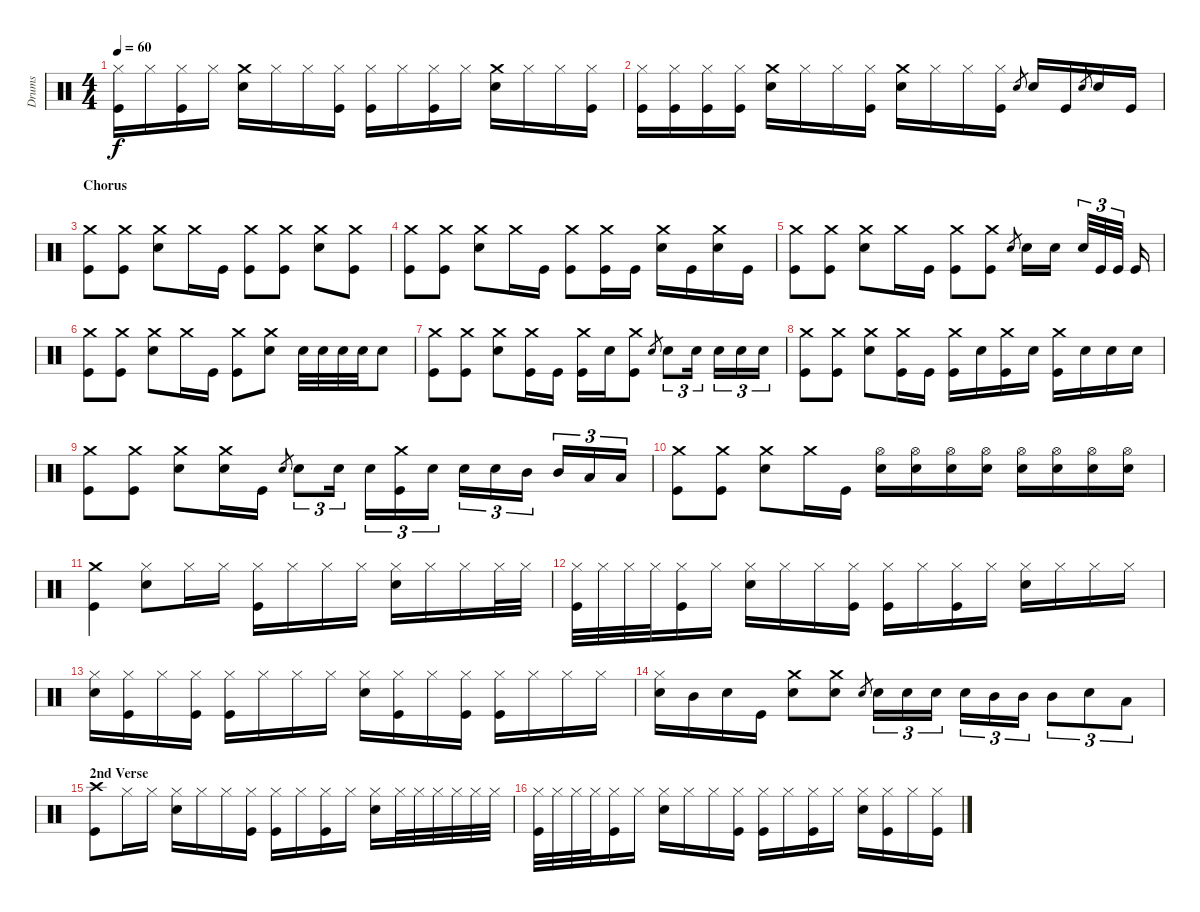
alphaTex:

\track ("Drums" "Drums") {instrument percussion}
\staff {score}
\articulation defaults
\ts (4 4)
\tempo 60
\clef neutral
\ks c
("Kick (hit)" "Hi-Hat (closed)").16{dy f} "Hi-Hat (closed)".16 ("Kick (hit)" "Hi-Hat (closed)").16 "Hi-Hat (closed)".16 ("Electric Snare (hit)" "Crash medium (hit)").16 "Hi-Hat (closed)".16 "Hi-Hat (closed)".16 ("Kick (hit)" "Hi-Hat (closed)").16 ("Kick (hit)" "Hi-Hat (closed)").16 "Hi-Hat (closed)".16 ("Kick (hit)" "Hi-Hat (closed)").16 "Hi-Hat (closed)".16 ("Electric Snare (hit)" "Crash medium (hit)").16 "Hi-Hat (closed)".16 "Hi-Hat (closed)".16 ("Kick (hit)" "Hi-Hat (closed)").16 |
("Kick (hit)" "Hi-Hat (closed)").16 ("Kick (hit)" "Hi-Hat (closed)").16 ("Kick (hit)" "Hi-Hat (closed)").16 ("Kick (hit)" "Hi-Hat (closed)").16 ("Electric Snare (hit)" "Crash medium (hit)").16 "Hi-Hat (closed)".16 "Hi-Hat (closed)".16 ("Kick (hit)" "Hi-Hat (closed)").16 ("Electric Snare (hit)" "Crash medium (hit)").16 "Hi-Hat (closed)".16 "Hi-Hat (closed)".16 ("Kick (hit)" "Hi-Hat (closed)").16 "Electric Snare (hit)".8{gr} "Electric Snare (hit)".16 "Kick (hit)".16 "Electric Snare (hit)".8{gr} "Electric Snare (hit)".16 "Kick (hit)".16 |
\section ("" "Chorus")
("Kick (hit)" "Crash medium (hit)").8 ("Kick (hit)" "Crash medium (hit)").8 ("Electric Snare (hit)" "Crash medium (hit)").8 "Crash medium (hit)".16 "Kick (hit)".16 ("Kick (hit)" "Crash medium (hit)").8 ("Kick (hit)" "Crash medium (hit)").8 ("Electric Snare (hit)" "Crash medium (hit)").8 ("Kick (hit)" "Crash medium (hit)").8 |
("Kick (hit)" "Crash medium (hit)").8 ("Kick (hit)" "Crash medium (hit)").8 ("Electric Snare (hit)" "Crash medium (hit)").8 "Crash medium (hit)".16 "Kick (hit)".16 ("Kick (hit)" "Crash medium (hit)").8 ("Kick (hit)" "Crash medium (hit)").16 "Kick (hit)".16 ("Electric Snare (hit)" "Crash medium (hit)").16 "Kick (hit)".16 ("Electric Snare (hit)" "Crash medium (hit)").16 "Kick (hit)".16 |
("Kick (hit)" "Crash medium (hit)").8 ("Kick (hit)" "Crash medium (hit)").8 ("Electric Snare (hit)" "Crash medium (hit)").8 "Crash medium (hit)".16 "Kick (hit)".16 ("Kick (hit)" "Crash medium (hit)").8 ("Kick (hit)" "Crash medium (hit)").8 "Electric Snare (hit)".8{gr} "Electric Snare (hit)".16 "Electric Snare (hit)".16 "Electric Snare (hit)".32{tu (3 2)} "Kick (hit)".32{tu (3 2)} "Kick (hit)".32{tu (3 2)} "Kick (hit)".16 |
("Kick (hit)" "Crash medium (hit)").8 ("Kick (hit)" "Crash medium (hit)").8 ("Electric Snare (hit)" "Crash medium (hit)").8 "Crash medium (hit)".16 "Kick (hit)".16 ("Kick (hit)" "Crash medium (hit)").8 ("Electric Snare (hit)" "Crash medium (hit)").8 "Electric Snare (hit)".32 "Electric Snare (hit)".32 "Electric Snare (hit)".32 "Electric Snare (hit)".32 "Electric Snare (hit)".8 |
("Kick (hit)" "Crash medium (hit)").8 ("Kick (hit)" "Crash medium (hit)").8 ("Electric Snare (hit)" "Crash medium (hit)").8 ("Kick (hit)" "Crash medium (hit)").16 "Kick (hit)".16 ("Kick (hit)" "Crash medium (hit)").16 "Electric Snare (hit)".16 ("Kick (hit)" "Crash medium (hit)").8 "Electric Snare (hit)".8{gr} "Electric Snare (hit)".8{tu (3 2)} "Electric Snare (hit)".16{tu (3 2)} "Electric Snare (hit)".16{tu (3 2)} "Electric Snare (hit)".16{tu (3 2)} "Electric Snare (hit)".16{tu (3 2)} |
("Kick (hit)" "Crash medium (hit)").8 ("Kick (hit)" "Crash medium (hit)").8 ("Electric Snare (hit)" "Crash medium (hit)").8 ("Kick (hit)" "Crash medium (hit)").16 "Kick (hit)".16 ("Kick (hit)" "Crash medium (hit)").16 "Electric Snare (hit)".16 ("Kick (hit)" "Crash medium (hit)").16 "Electric Snare (hit)".16 ("Kick (hit)" "Crash medium (hit)").16 "Electric Snare (hit)".16 "Electric Snare (hit)".16 "Electric Snare (hit)".16 |
("Kick (hit)" "Crash medium (hit)").8 ("Kick (hit)" "Crash medium (hit)").8 ("Electric Snare (hit)" "Crash medium (hit)").8 ("Electric Snare (hit)" "Crash medium (hit)").16 "Kick (hit)".16 "Electric Snare (hit)".8{gr} "Electric Snare (hit)".8{tu (3 2)} "Electric Snare (hit)".16{tu (3 2)} "Electric Snare (hit)".16{tu (3 2)} ("Kick (hit)" "Crash medium (hit)").16{tu (3 2)} "Electric Snare (hit)".16{tu (3 2)} "Electric Snare (hit)".16{tu (3 2)} "Electric Snare (hit)".16{tu (3 2)} "Mid Tom (hit)".16{tu (3 2)} "Mid Tom (hit)".16{tu (3 2)} "Low Tom (hit)".16{tu (3 2)} "Low Tom (hit)".16{tu (3 2)} |
("Kick (hit)" "Crash medium (hit)").8 ("Kick (hit)" "Crash medium (hit)").8 ("Electric Snare (hit)" "Crash medium (hit)").8 "Crash medium (hit)".16 "Kick (hit)".16 ("Electric Snare (hit)" "Hi-Hat (open)").16 ("Electric Snare (hit)" "Hi-Hat (open)").16 ("Electric Snare (hit)" "Hi-Hat (open)").16 ("Electric Snare (hit)" "Hi-Hat (open)").16 ("Electric Snare (hit)" "Hi-Hat (open)").16 ("Electric Snare (hit)" "Hi-Hat (open)").16 ("Electric Snare (hit)" "Hi-Hat (open)").16 ("Electric Snare (hit)" "Hi-Hat (open)").16 |
("Kick (hit)" "Crash medium (hit)").4 ("Electric Snare (hit)" "Hi-Hat (closed)").8 "Hi-Hat (closed)".16 "Hi-Hat (closed)".16 ("Kick (hit)" "Hi-Hat (closed)").16 "Hi-Hat (closed)".16 "Hi-Hat (closed)".16 "Hi-Hat (closed)".16 ("Electric Snare (hit)" "Hi-Hat (closed)").16 "Hi-Hat (closed)".16 "Hi-Hat (closed)".16 "Hi-Hat (closed)".32 "Hi-Hat (closed)".32 |
("Kick (hit)" "Hi-Hat (closed)").32 "Hi-Hat (closed)".32 "Hi-Hat (closed)".32 "Hi-Hat (closed)".32 ("Kick (hit)" "Hi-Hat (closed)").16 "Hi-Hat (closed)".16 ("Electric Snare (hit)" "Hi-Hat (closed)").16 "Hi-Hat (closed)".16 "Hi-Hat (closed)".16 ("Kick (hit)" "Hi-Hat (closed)").16 ("Kick (hit)" "Hi-Hat (closed)").16 "Hi-Hat (closed)".16 ("Kick (hit)" "Hi-Hat (closed)").16 "Hi-Hat (closed)".16 ("Electric Snare (hit)" "Hi-Hat (closed)").16 "Hi-Hat (closed)".16 "Hi-Hat (closed)".16 "Hi-Hat (closed)".16 |
("Electric Snare (hit)" "Hi-Hat (closed)").16 ("Kick (hit)" "Hi-Hat (closed)").16 "Hi-Hat (closed)".16 ("Kick (hit)" "Hi-Hat (closed)").16 ("Kick (hit)" "Hi-Hat (closed)").16 "Hi-Hat (closed)".16 "Hi-Hat (closed)".16 "Hi-Hat (closed)".16 ("Electric Snare (hit)" "Hi-Hat (closed)").16 ("Kick (hit)" "Hi-Hat (closed)").16 "Hi-Hat (closed)".16 ("Kick (hit)" "Hi-Hat (closed)").16 ("Kick (hit)" "Hi-Hat (closed)").16 "Hi-Hat (closed)".16 "Hi-Hat (closed)".16 "Hi-Hat (closed)".16 |
("Electric Snare (hit)" "Hi-Hat (closed)").16 "Mid Tom (hit)".16 "Electric Snare (hit)".16 "Kick (hit)".16 ("Electric Snare (hit)" "Crash medium (hit)").8 ("Electric Snare (hit)" "Crash medium (hit)").8 "Electric Snare (hit)".8{gr} "Electric Snare (hit)".16{tu (3 2)} "Electric Snare (hit)".16{tu (3 2)} "Electric Snare (hit)".16{tu (3 2)} "Electric Snare (hit)".16{tu (3 2)} "Mid Tom (hit)".16{tu (3 2)} "Mid Tom (hit)".16{tu (3 2)} "Mid Tom (hit)".8{tu (3 2)} "Electric Snare (hit)".8{tu (3 2)} "Low Tom (hit)".8{tu (3 2)} |
\section ("" "2nd Verse")
("Kick (hit)" "Crash high (hit)").8 "Hi-Hat (closed)".16 "Hi-Hat (closed)".16 ("Electric Snare (hit)" "Hi-Hat (closed)").16 "Hi-Hat (closed)".16 "Hi-Hat (closed)".16 ("Kick (hit)" "Hi-Hat (closed)").16 ("Kick (hit)" "Hi-Hat (closed)").16 "Hi-Hat (closed)".16 ("Kick (hit)" "Hi-Hat (closed)").16 "Hi-Hat (closed)".16 ("Electric Snare (hit)" "Hi-Hat (closed)").16 "Hi-Hat (closed)".32 "Hi-Hat (closed)".32 "Hi-Hat (closed)".32 "Hi-Hat (closed)".32 "Hi-Hat (closed)".32 "Hi-Hat (closed)".32 |
("Kick (hit)" "Hi-Hat (closed)").32 "Hi-Hat (closed)".32 "Hi-Hat (closed)".32 "Hi-Hat (closed)".32 ("Kick (hit)" "Hi-Hat (closed)").16 "Hi-Hat (closed)".16 ("Electric Snare (hit)" "Hi-Hat (closed)").16 "Hi-Hat (closed)".16 "Hi-Hat (closed)".16 ("Kick (hit)" "Hi-Hat (closed)").16 ("Kick (hit)" "Hi-Hat (closed)").16 "Hi-Hat (closed)".16 ("Kick (hit)" "Hi-Hat (closed)").16 "Hi-Hat (closed)".16 ("Electric Snare (hit)" "Hi-Hat (closed)").16 ("Kick (hit)" "Hi-Hat (closed)").16 "Hi-Hat (closed)".16 ("Kick (hit)" "Hi-Hat (closed)").16
